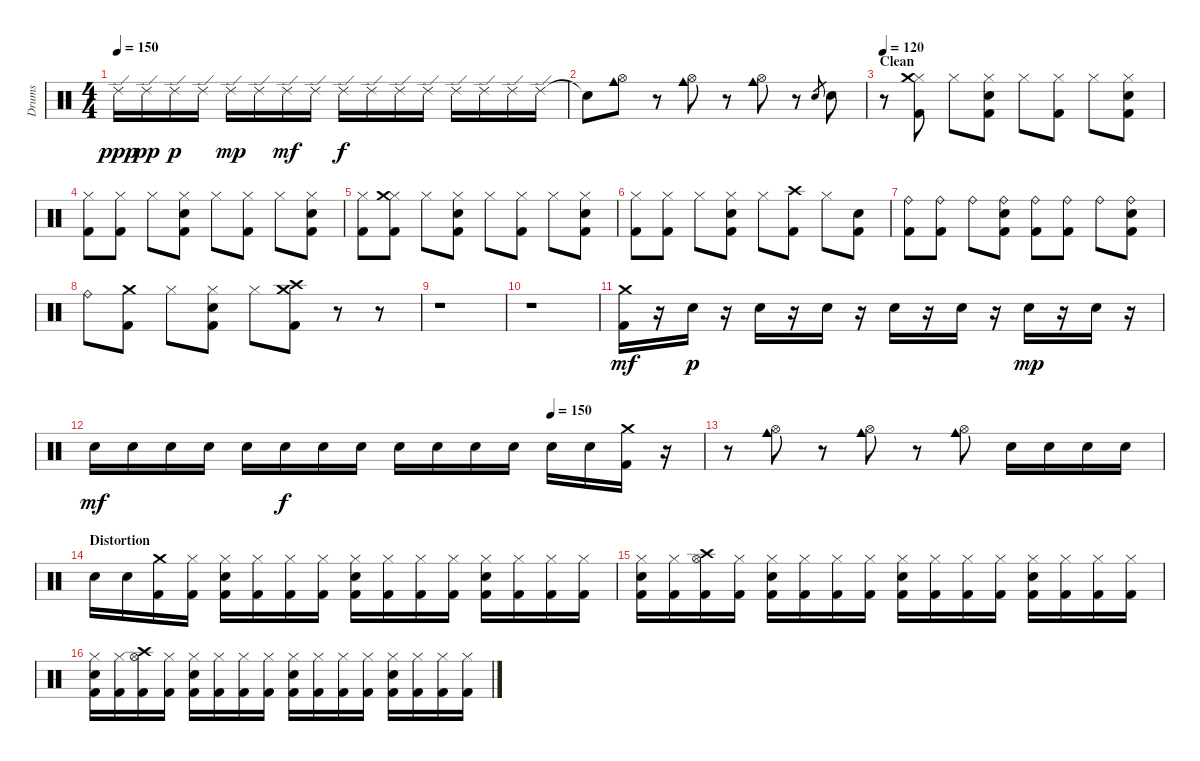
\track ("Drums" "Drums") {instrument percussion}
\staff {score}
\articulation defaults
\ts (4 4)
\tempo 150
\clef neutral
\ks c "Ride (edge) 2".16{dy ppp} "Ride (edge) 2".16{dy pp} "Ride (edge) 2".16{dy p} "Ride (edge) 2".16 "Ride (edge) 2".16{dy mp} "Ride (edge) 2".16 "Ride (edge) 2".16{dy mf} "Ride (edge) 2".16 "Ride (edge) 2".16{dy f} "Ride (edge) 2".16 "Ride (edge) 2".16 "Ride (edge) 2".16 "Ride (edge) 2".16 "Ride (edge) 2".16 "Ride (edge) 2".16 "Ride (edge) 2".16
|
"Snare (hit)"{t}.8 ("Hi-Hat (open)" "Cowbell medium (hit)").8 r.8 ("Hi-Hat (open)" "Cowbell medium (hit)").8 r.8 ("Hi-Hat (open)" "Cowbell medium (hit)").8 r.8 "Snare (hit) 2".8{gr} "Snare (hit) 2".8 |
\section ("" "Clean")
\tempo 120
r.8 ("Hi-Hat (closed)" "Kick (hit) 2" "Crash medium (hit)").8 "Hi-Hat (closed)".8 ("Hi-Hat (closed)" "Snare (hit) 2" "Kick (hit) 2").8 "Hi-Hat (closed)".8 ("Hi-Hat (closed)" "Kick (hit) 2").8 "Hi-Hat (closed)".8 ("Hi-Hat (closed)" "Snare (hit) 2" "Kick (hit) 2").8 |
("Hi-Hat (closed)" "Kick (hit) 2").8 ("Hi-Hat (closed)" "Kick (hit) 2").8 "Hi-Hat (closed)".8 ("Hi-Hat (closed)" "Snare (hit) 2" "Kick (hit) 2").8 "Hi-Hat (closed)".8 ("Hi-Hat (closed)" "Kick (hit) 2").8 "Hi-Hat (closed)".8 ("Hi-Hat (closed)" "Snare (hit) 2" "Kick (hit) 2").8 |
("Hi-Hat (closed)" "Kick (hit) 2").8 ("Hi-Hat (closed)" "Kick (hit) 2" "Crash medium (hit)").8 "Hi-Hat (closed)".8 ("Hi-Hat (closed)" "Snare (hit) 2" "Kick (hit) 2").8 "Hi-Hat (closed)".8 ("Hi-Hat (closed)" "Kick (hit) 2").8 "Hi-Hat (closed)".8 ("Hi-Hat (closed)" "Snare (hit) 2" "Kick (hit) 2").8 |
("Hi-Hat (closed)" "Kick (hit) 2").8 ("Hi-Hat (closed)" "Kick (hit) 2").8 "Hi-Hat (closed)".8 ("Hi-Hat (closed)" "Snare (hit) 2" "Kick (hit) 2").8 "Hi-Hat (closed)".8 ("Kick (hit) 2" "Crash high (hit)").8 "Hi-Hat (closed)".8 ("Snare (hit) 2" "Kick (hit) 2").8 |
("Ride (bell)" "Kick (hit) 2").8 ("Ride (bell)" "Kick (hit) 2").8 "Ride (bell)".8 ("Ride (bell)" "Snare (hit) 2" "Kick (hit) 2").8 ("Ride (bell)" "Kick (hit) 2").8 ("Ride (bell)" "Kick (hit) 2").8 "Ride (bell)".8 ("Ride (bell)" "Snare (hit) 2" "Kick (hit) 2").8 |
"Ride (bell)".8 ("Kick (hit) 2" "Crash medium (hit)").8 "Hi-Hat (closed)".8 ("Hi-Hat (closed)" "Snare (hit) 2" "Kick (hit) 2").8 "Hi-Hat (closed)".8 ("Kick (hit) 2" "Crash medium (hit)" "Crash high (hit)").8 r.8 r.8 |
r.1 |
r.1 |
("Kick (hit) 2" "Crash medium (hit)").16{dy mf} r.16 "Snare (hit) 2".16{dy p} r.16 "Snare (hit) 2".16 r.16 "Snare (hit) 2".16 r.16 "Snare (hit) 2".16 r.16 "Snare (hit) 2".16 r.16 "Snare (hit) 2".16{dy mp} r.16 "Snare (hit) 2".16 r.16 |
\tempo (150 0.75)
"Snare (hit) 2".16{dy mf} "Snare (hit) 2".16 "Snare (hit) 2".16 "Snare (hit) 2".16 "Snare (hit) 2".16 "Snare (hit) 2".16{dy f} "Snare (hit) 2".16 "Snare (hit) 2".16 "Snare (hit) 2".16 "Snare (hit) 2".16 "Snare (hit) 2".16 "Snare (hit) 2".16 "Snare (hit) 2".16 "Snare (hit) 2".16 ("Kick (hit) 2" "Crash medium (hit)").16 r.16 |
r.8 ("Hi-Hat (open)" "Cowbell medium (hit)").8 r.8 ("Hi-Hat (open)" "Cowbell medium (hit)").8 r.8 ("Hi-Hat (open)" "Cowbell medium (hit)").8 "Snare (hit) 2".16 "Snare (hit) 2".16 "Snare (hit) 2".16 "Snare (hit) 2".16 |
\section ("" "Distortion")
"Snare (hit) 2".16 "Snare (hit) 2".16 ("Kick (hit) 2" "Crash medium (hit)").16 ("Hi-Hat (closed)" "Kick (hit) 2").16 ("Hi-Hat (closed)" "Snare (hit) 2" "Kick (hit) 2").16 ("Hi-Hat (closed)" "Kick (hit) 2").16 ("Hi-Hat (closed)" "Kick (hit) 2").16 ("Hi-Hat (closed)" "Kick (hit) 2").16 ("Hi-Hat (closed)" "Snare (hit) 2" "Kick (hit) 2").16 ("Hi-Hat (closed)" "Kick (hit) 2").16 ("Hi-Hat (closed)" "Kick (hit) 2").16 ("Hi-Hat (closed)" "Kick (hit) 2").16 ("Hi-Hat (closed)" "Snare (hit) 2" "Kick (hit) 2").16 ("Hi-Hat (closed)" "Kick (hit) 2").16 ("Hi-Hat (closed)" "Kick (hit) 2").16 ("Hi-Hat (closed)" "Kick (hit) 2").16 |
("Hi-Hat (closed)" "Snare (hit) 2" "Kick (hit) 2").16 ("Hi-Hat (closed)" "Kick (hit) 2").16 ("Hi-Hat (open)" "Kick (hit) 2" "Crash high (hit)").16 ("Hi-Hat (closed)" "Kick (hit) 2").16 ("Hi-Hat (closed)" "Snare (hit) 2" "Kick (hit) 2").16 ("Hi-Hat (closed)" "Kick (hit) 2").16 ("Hi-Hat (closed)" "Kick (hit) 2").16 ("Hi-Hat (closed)" "Kick (hit) 2").16 ("Hi-Hat (closed)" "Snare (hit) 2" "Kick (hit) 2").16 ("Hi-Hat (closed)" "Kick (hit) 2").16 ("Hi-Hat (closed)" "Kick (hit) 2").16 ("Hi-Hat (closed)" "Kick (hit) 2").16 ("Hi-Hat (closed)" "Snare (hit) 2" "Kick (hit) 2").16 ("Hi-Hat (closed)" "Kick (hit) 2").16 ("Hi-Hat (closed)" "Kick (hit) 2").16 ("Hi-Hat (closed)" "Kick (hit) 2").16 |
("Hi-Hat (closed)" "Snare (hit) 2" "Kick (hit) 2").16 ("Hi-Hat (closed)" "Kick (hit) 2").16 ("Hi-Hat (open)" "Kick (hit) 2" "Crash high (hit)").16 ("Hi-Hat (closed)" "Kick (hit) 2").16 ("Hi-Hat (closed)" "Snare (hit) 2" "Kick (hit) 2").16 ("Hi-Hat (closed)" "Kick (hit) 2").16 ("Hi-Hat (closed)" "Kick (hit) 2").16 ("Hi-Hat (closed)" "Kick (hit) 2").16 ("Hi-Hat (closed)" "Snare (hit) 2" "Kick (hit) 2").16 ("Hi-Hat (closed)" "Kick (hit) 2").16 ("Hi-Hat (closed)" "Kick (hit) 2").16 ("Hi-Hat (closed)" "Kick (hit) 2").16 ("Hi-Hat (closed)" "Snare (hit) 2" "Kick (hit) 2").16 ("Hi-Hat (closed)" "Kick (hit) 2").16 ("Hi-Hat (closed)" "Kick (hit) 2").16 ("Hi-Hat (closed)" "Kick (hit) 2").16
